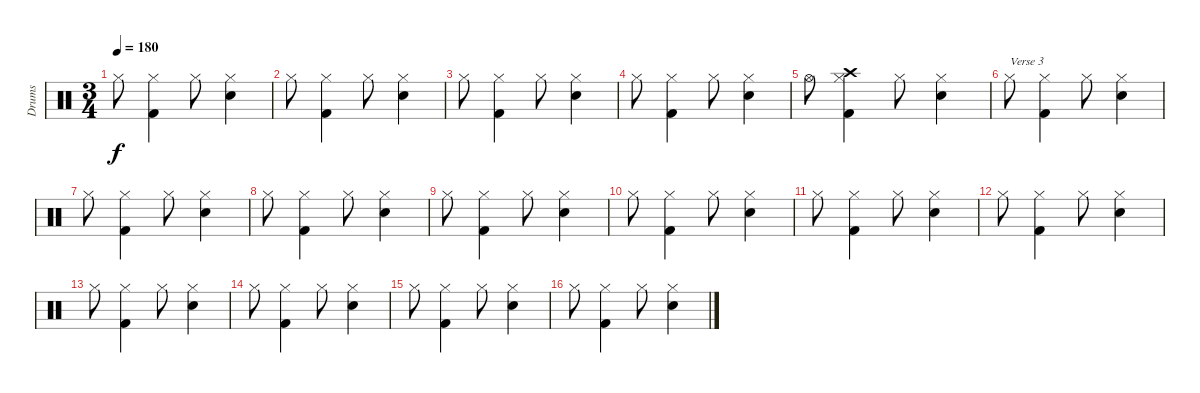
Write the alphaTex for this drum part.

\track ("Drums" "Drums") {instrument percussion}
\staff {score}
\articulation defaults
\ts (3 4)
\tempo 180
\clef neutral
\ks c "Hi-Hat (closed)".8{dy f}
("Hi-Hat (closed)" "Kick (hit) 2").4 "Hi-Hat (closed)".8 ("Hi-Hat (closed)" "Snare (hit) 2").4 |
"Hi-Hat (closed)".8 ("Hi-Hat (closed)" "Kick (hit) 2").4 "Hi-Hat (closed)".8 ("Hi-Hat (closed)" "Snare (hit) 2").4 |
"Hi-Hat (closed)".8 ("Hi-Hat (closed)" "Kick (hit) 2").4 "Hi-Hat (closed)".8 ("Hi-Hat (closed)" "Snare (hit) 2").4 |
"Hi-Hat (closed)".8 ("Hi-Hat (closed)" "Kick (hit) 2").4 "Hi-Hat (closed)".8 ("Hi-Hat (closed)" "Snare (hit) 2").4 |
"Hi-Hat (open)".8 ("Crash high (hit)" "Hi-Hat (closed)" "Kick (hit) 2").4 "Hi-Hat (closed)".8 ("Hi-Hat (closed)" "Snare (hit) 2").4 |
"Hi-Hat (closed)".8{txt "Verse 3"} ("Hi-Hat (closed)" "Kick (hit) 2").4 "Hi-Hat (closed)".8 ("Hi-Hat (closed)" "Snare (hit) 2").4 |
"Hi-Hat (closed)".8 ("Hi-Hat (closed)" "Kick (hit) 2").4 "Hi-Hat (closed)".8 ("Hi-Hat (closed)" "Snare (hit) 2").4 |
"Hi-Hat (closed)".8 ("Hi-Hat (closed)" "Kick (hit) 2").4 "Hi-Hat (closed)".8 ("Hi-Hat (closed)" "Snare (hit) 2").4 |
"Hi-Hat (closed)".8 ("Hi-Hat (closed)" "Kick (hit) 2").4 "Hi-Hat (closed)".8 ("Hi-Hat (closed)" "Snare (hit) 2").4 |
"Hi-Hat (closed)".8 ("Hi-Hat (closed)" "Kick (hit) 2").4 "Hi-Hat (closed)".8 ("Hi-Hat (closed)" "Snare (hit) 2").4 |
"Hi-Hat (closed)".8 ("Hi-Hat (closed)" "Kick (hit) 2").4 "Hi-Hat (closed)".8 ("Hi-Hat (closed)" "Snare (hit) 2").4 |
"Hi-Hat (closed)".8 ("Hi-Hat (closed)" "Kick (hit) 2").4 "Hi-Hat (closed)".8 ("Hi-Hat (closed)" "Snare (hit) 2").4 |
"Hi-Hat (closed)".8 ("Hi-Hat (closed)" "Kick (hit) 2").4 "Hi-Hat (closed)".8 ("Hi-Hat (closed)" "Snare (hit) 2").4 |
"Hi-Hat (closed)".8 ("Hi-Hat (closed)" "Kick (hit) 2").4 "Hi-Hat (closed)".8 ("Hi-Hat (closed)" "Snare (hit) 2").4 |
"Hi-Hat (closed)".8 ("Hi-Hat (closed)" "Kick (hit) 2").4 "Hi-Hat (closed)".8 ("Hi-Hat (closed)" "Snare (hit) 2").4 |
"Hi-Hat (closed)".8 ("Hi-Hat (closed)" "Kick (hit) 2").4 "Hi-Hat (closed)".8 ("Hi-Hat (closed)" "Snare (hit) 2").4
